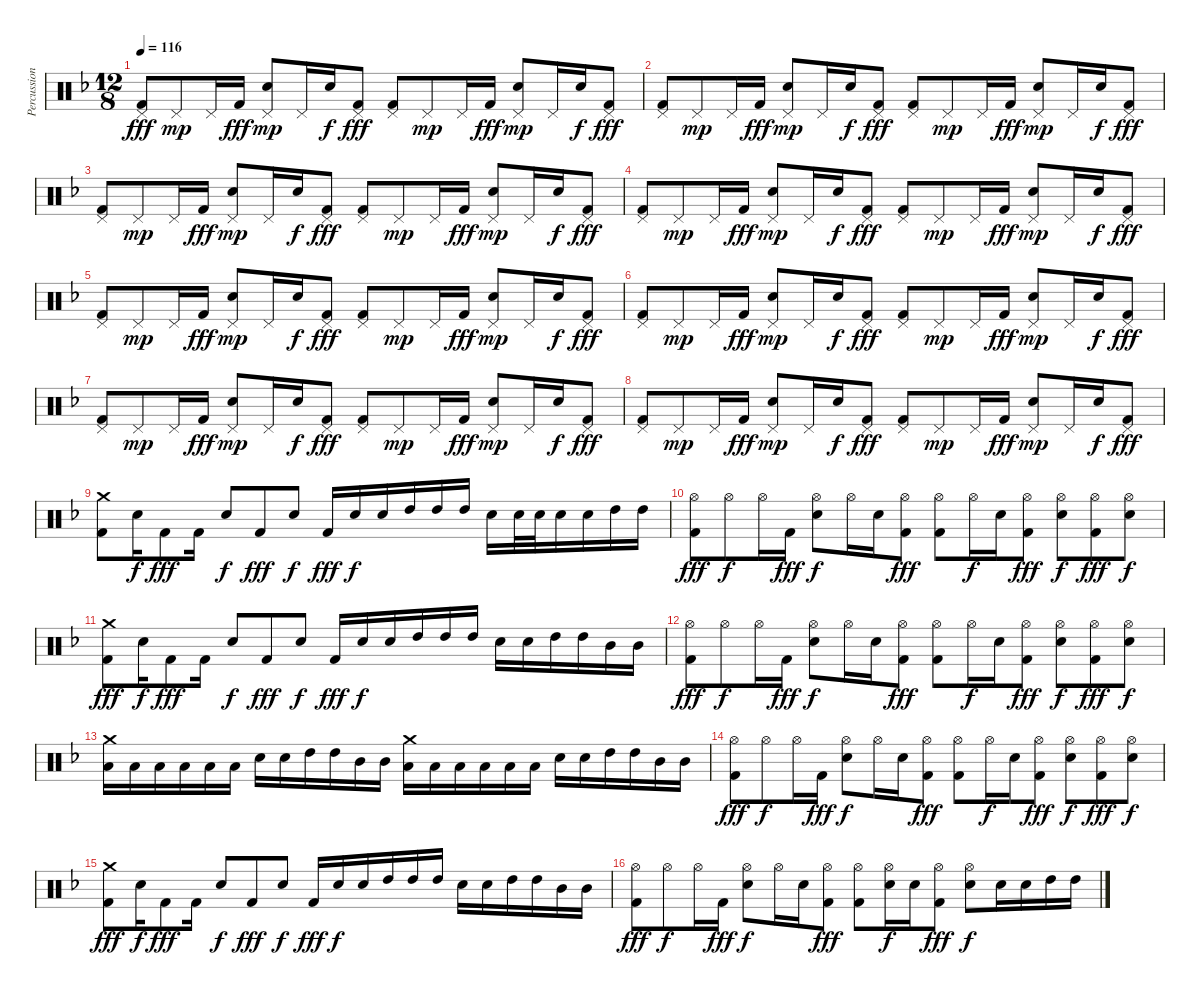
\track ("Percussions" "Percussion") {instrument percussion}
\staff {score}
\articulation defaults
\ts (12 8)
\tempo 116
\clef neutral
\ks f
("Pedal Hi-Hat (hit)" "Kick (hit) 2").8{dy fff} "Pedal Hi-Hat (hit)".8{dy mp} "Pedal Hi-Hat (hit)".16 "Kick (hit) 2".16{dy fff} ("Pedal Hi-Hat (hit)" "Snare (hit) 2").8{dy mp} "Pedal Hi-Hat (hit)".16 "Snare (hit) 2".16{dy f} ("Pedal Hi-Hat (hit)" "Kick (hit) 2").8{dy fff} ("Pedal Hi-Hat (hit)" "Kick (hit) 2").8 "Pedal Hi-Hat (hit)".8{dy mp} "Pedal Hi-Hat (hit)".16 "Kick (hit) 2".16{dy fff} ("Pedal Hi-Hat (hit)" "Snare (hit) 2").8{dy mp} "Pedal Hi-Hat (hit)".16 "Snare (hit) 2".16{dy f} ("Pedal Hi-Hat (hit)" "Kick (hit) 2").8{dy fff} |
("Pedal Hi-Hat (hit)" "Kick (hit) 2").8 "Pedal Hi-Hat (hit)".8{dy mp} "Pedal Hi-Hat (hit)".16 "Kick (hit) 2".16{dy fff} ("Pedal Hi-Hat (hit)" "Snare (hit) 2").8{dy mp} "Pedal Hi-Hat (hit)".16 "Snare (hit) 2".16{dy f} ("Pedal Hi-Hat (hit)" "Kick (hit) 2").8{dy fff} ("Pedal Hi-Hat (hit)" "Kick (hit) 2").8 "Pedal Hi-Hat (hit)".8{dy mp} "Pedal Hi-Hat (hit)".16 "Kick (hit) 2".16{dy fff} ("Pedal Hi-Hat (hit)" "Snare (hit) 2").8{dy mp} "Pedal Hi-Hat (hit)".16 "Snare (hit) 2".16{dy f} ("Pedal Hi-Hat (hit)" "Kick (hit) 2").8{dy fff} |
("Pedal Hi-Hat (hit)" "Kick (hit) 2").8 "Pedal Hi-Hat (hit)".8{dy mp} "Pedal Hi-Hat (hit)".16 "Kick (hit) 2".16{dy fff} ("Pedal Hi-Hat (hit)" "Snare (hit) 2").8{dy mp} "Pedal Hi-Hat (hit)".16 "Snare (hit) 2".16{dy f} ("Pedal Hi-Hat (hit)" "Kick (hit) 2").8{dy fff} ("Pedal Hi-Hat (hit)" "Kick (hit) 2").8 "Pedal Hi-Hat (hit)".8{dy mp} "Pedal Hi-Hat (hit)".16 "Kick (hit) 2".16{dy fff} ("Pedal Hi-Hat (hit)" "Snare (hit) 2").8{dy mp} "Pedal Hi-Hat (hit)".16 "Snare (hit) 2".16{dy f} ("Pedal Hi-Hat (hit)" "Kick (hit) 2").8{dy fff} |
("Pedal Hi-Hat (hit)" "Kick (hit) 2").8 "Pedal Hi-Hat (hit)".8{dy mp} "Pedal Hi-Hat (hit)".16 "Kick (hit) 2".16{dy fff} ("Pedal Hi-Hat (hit)" "Snare (hit) 2").8{dy mp} "Pedal Hi-Hat (hit)".16 "Snare (hit) 2".16{dy f} ("Pedal Hi-Hat (hit)" "Kick (hit) 2").8{dy fff} ("Pedal Hi-Hat (hit)" "Kick (hit) 2").8 "Pedal Hi-Hat (hit)".8{dy mp} "Pedal Hi-Hat (hit)".16 "Kick (hit) 2".16{dy fff} ("Pedal Hi-Hat (hit)" "Snare (hit) 2").8{dy mp} "Pedal Hi-Hat (hit)".16 "Snare (hit) 2".16{dy f} ("Pedal Hi-Hat (hit)" "Kick (hit) 2").8{dy fff} |
("Pedal Hi-Hat (hit)" "Kick (hit) 2").8 "Pedal Hi-Hat (hit)".8{dy mp} "Pedal Hi-Hat (hit)".16 "Kick (hit) 2".16{dy fff} ("Pedal Hi-Hat (hit)" "Snare (hit) 2").8{dy mp} "Pedal Hi-Hat (hit)".16 "Snare (hit) 2".16{dy f} ("Pedal Hi-Hat (hit)" "Kick (hit) 2").8{dy fff} ("Pedal Hi-Hat (hit)" "Kick (hit) 2").8 "Pedal Hi-Hat (hit)".8{dy mp} "Pedal Hi-Hat (hit)".16 "Kick (hit) 2".16{dy fff} ("Pedal Hi-Hat (hit)" "Snare (hit) 2").8{dy mp} "Pedal Hi-Hat (hit)".16 "Snare (hit) 2".16{dy f} ("Pedal Hi-Hat (hit)" "Kick (hit) 2").8{dy fff} |
("Pedal Hi-Hat (hit)" "Kick (hit) 2").8 "Pedal Hi-Hat (hit)".8{dy mp} "Pedal Hi-Hat (hit)".16 "Kick (hit) 2".16{dy fff} ("Pedal Hi-Hat (hit)" "Snare (hit) 2").8{dy mp} "Pedal Hi-Hat (hit)".16 "Snare (hit) 2".16{dy f} ("Pedal Hi-Hat (hit)" "Kick (hit) 2").8{dy fff} ("Pedal Hi-Hat (hit)" "Kick (hit) 2").8 "Pedal Hi-Hat (hit)".8{dy mp} "Pedal Hi-Hat (hit)".16 "Kick (hit) 2".16{dy fff} ("Pedal Hi-Hat (hit)" "Snare (hit) 2").8{dy mp} "Pedal Hi-Hat (hit)".16 "Snare (hit) 2".16{dy f} ("Pedal Hi-Hat (hit)" "Kick (hit) 2").8{dy fff} |
("Pedal Hi-Hat (hit)" "Kick (hit) 2").8 "Pedal Hi-Hat (hit)".8{dy mp} "Pedal Hi-Hat (hit)".16 "Kick (hit) 2".16{dy fff} ("Pedal Hi-Hat (hit)" "Snare (hit) 2").8{dy mp} "Pedal Hi-Hat (hit)".16 "Snare (hit) 2".16{dy f} ("Pedal Hi-Hat (hit)" "Kick (hit) 2").8{dy fff} ("Pedal Hi-Hat (hit)" "Kick (hit) 2").8 "Pedal Hi-Hat (hit)".8{dy mp} "Pedal Hi-Hat (hit)".16 "Kick (hit) 2".16{dy fff} ("Pedal Hi-Hat (hit)" "Snare (hit) 2").8{dy mp} "Pedal Hi-Hat (hit)".16 "Snare (hit) 2".16{dy f} ("Pedal Hi-Hat (hit)" "Kick (hit) 2").8{dy fff} |
("Pedal Hi-Hat (hit)" "Kick (hit) 2").8 "Pedal Hi-Hat (hit)".8{dy mp} "Pedal Hi-Hat (hit)".16 "Kick (hit) 2".16{dy fff} ("Pedal Hi-Hat (hit)" "Snare (hit) 2").8{dy mp} "Pedal Hi-Hat (hit)".16 "Snare (hit) 2".16{dy f} ("Pedal Hi-Hat (hit)" "Kick (hit) 2").8{dy fff} ("Pedal Hi-Hat (hit)" "Kick (hit) 2").8 "Pedal Hi-Hat (hit)".8{dy mp} "Pedal Hi-Hat (hit)".16 "Kick (hit) 2".16{dy fff} ("Pedal Hi-Hat (hit)" "Snare (hit) 2").8{dy mp} "Pedal Hi-Hat (hit)".16 "Snare (hit) 2".16{dy f} ("Pedal Hi-Hat (hit)" "Kick (hit) 2").8{dy fff} |
("Crash medium (hit)" "Kick (hit) 2").8 "Snare (hit) 2".16{dy f} "Kick (hit) 2".8{dy fff} "Kick (hit) 2".16 "Snare (hit) 2".8{dy f} "Kick (hit) 2".8{dy fff} "Snare (hit) 2".8{dy f} "Kick (hit) 2".16{dy fff} "Snare (hit) 2".16{dy f} "Snare (hit) 2".16 "High Tom (hit)".16 "High Tom (hit)".16 "High Tom (hit)".16 "Snare (hit) 2".16 "Snare (hit) 2".32 "Snare (hit) 2".32 "Snare (hit) 2".16 "Snare (hit) 2".16 "High Tom (hit)".16 "High Tom (hit)".16 |
("Hi-Hat (open)" "Kick (hit) 2").8{dy fff} "Hi-Hat (open)".8{dy f} "Hi-Hat (open)".16 "Kick (hit) 2".16{dy fff} ("Hi-Hat (open)" "Snare (hit) 2").8{dy f} "Hi-Hat (open)".16 "Snare (hit) 2".16 ("Hi-Hat (open)" "Kick (hit) 2").8{dy fff} ("Hi-Hat (open)" "Kick (hit) 2").8 "Hi-Hat (open)".16{dy f} "Snare (hit) 2".16 ("Hi-Hat (open)" "Kick (hit) 2").8{dy fff} ("Hi-Hat (open)" "Snare (hit) 2").8{dy f} ("Hi-Hat (open)" "Kick (hit) 2").8{dy fff} ("Hi-Hat (open)" "Snare (hit) 2").8{dy f} |
("Crash medium (hit)" "Kick (hit) 2").8{dy fff} "Snare (hit) 2".16{dy f} "Kick (hit) 2".8{dy fff} "Kick (hit) 2".16 "Snare (hit) 2".8{dy f} "Kick (hit) 2".8{dy fff} "Snare (hit) 2".8{dy f} "Kick (hit) 2".16{dy fff} "Snare (hit) 2".16{dy f} "Snare (hit) 2".16 "High Tom (hit)".16 "High Tom (hit)".16 "High Tom (hit)".16 "Snare (hit) 2".16 "Snare (hit) 2".16 "High Tom (hit)".16 "High Tom (hit)".16 "Mid Tom (hit)".16 "Mid Tom (hit)".16 |
("Hi-Hat (open)" "Kick (hit) 2").8{dy fff} "Hi-Hat (open)".8{dy f} "Hi-Hat (open)".16 "Kick (hit) 2".16{dy fff} ("Hi-Hat (open)" "Snare (hit) 2").8{dy f} "Hi-Hat (open)".16 "Snare (hit) 2".16 ("Hi-Hat (open)" "Kick (hit) 2").8{dy fff} ("Hi-Hat (open)" "Kick (hit) 2").8 "Hi-Hat (open)".16{dy f} "Snare (hit) 2".16 ("Hi-Hat (open)" "Kick (hit) 2").8{dy fff} ("Hi-Hat (open)" "Snare (hit) 2").8{dy f} ("Hi-Hat (open)" "Kick (hit) 2").8{dy fff} ("Hi-Hat (open)" "Snare (hit) 2").8{dy f} |
("Crash medium (hit)" "Low Tom (hit)").16 "Low Tom (hit)".16 "Low Tom (hit)".16 "Low Tom (hit)".16 "Low Tom (hit)".16 "Low Tom (hit)".16 "Snare (hit) 2".16 "Snare (hit) 2".16 "High Tom (hit)".16 "High Tom (hit)".16 "Mid Tom (hit)".16 "Mid Tom (hit)".16 ("Crash medium (hit)" "Low Tom (hit)").16 "Low Tom (hit)".16 "Low Tom (hit)".16 "Low Tom (hit)".16 "Low Tom (hit)".16 "Low Tom (hit)".16 "Snare (hit) 2".16 "Snare (hit) 2".16 "High Tom (hit)".16 "High Tom (hit)".16 "Mid Tom (hit)".16 "Mid Tom (hit)".16 |
("Hi-Hat (open)" "Kick (hit) 2").8{dy fff} "Hi-Hat (open)".8{dy f} "Hi-Hat (open)".16 "Kick (hit) 2".16{dy fff} ("Hi-Hat (open)" "Snare (hit) 2").8{dy f} "Hi-Hat (open)".16 "Snare (hit) 2".16 ("Hi-Hat (open)" "Kick (hit) 2").8{dy fff} ("Hi-Hat (open)" "Kick (hit) 2").8 "Hi-Hat (open)".16{dy f} "Snare (hit) 2".16 ("Hi-Hat (open)" "Kick (hit) 2").8{dy fff} ("Hi-Hat (open)" "Snare (hit) 2").8{dy f} ("Hi-Hat (open)" "Kick (hit) 2").8{dy fff} ("Hi-Hat (open)" "Snare (hit) 2").8{dy f} |
("Crash medium (hit)" "Kick (hit) 2").8{dy fff} "Snare (hit) 2".16{dy f} "Kick (hit) 2".8{dy fff} "Kick (hit) 2".16 "Snare (hit) 2".8{dy f} "Kick (hit) 2".8{dy fff} "Snare (hit) 2".8{dy f} "Kick (hit) 2".16{dy fff} "Snare (hit) 2".16{dy f} "Snare (hit) 2".16 "High Tom (hit)".16 "High Tom (hit)".16 "High Tom (hit)".16 "Snare (hit) 2".16 "Snare (hit) 2".16 "High Tom (hit)".16 "High Tom (hit)".16 "Mid Tom (hit)".16 "Mid Tom (hit)".16 |
("Hi-Hat (open)" "Kick (hit) 2").8{dy fff} "Hi-Hat (open)".8{dy f} "Hi-Hat (open)".16 "Kick (hit) 2".16{dy fff} ("Hi-Hat (open)" "Snare (hit) 2").8{dy f} "Hi-Hat (open)".16 "Snare (hit) 2".16 ("Hi-Hat (open)" "Kick (hit) 2").8{dy fff} ("Hi-Hat (open)" "Kick (hit) 2").8 ("Hi-Hat (open)" "Snare (hit) 2").16{dy f} "Snare (hit) 2".16 ("Hi-Hat (open)" "Kick (hit) 2").8{dy fff} ("Hi-Hat (open)" "Snare (hit) 2").8{dy f} "Snare (hit) 2".16 "Snare (hit) 2".16 "High Tom (hit)".16 "High Tom (hit)".16
